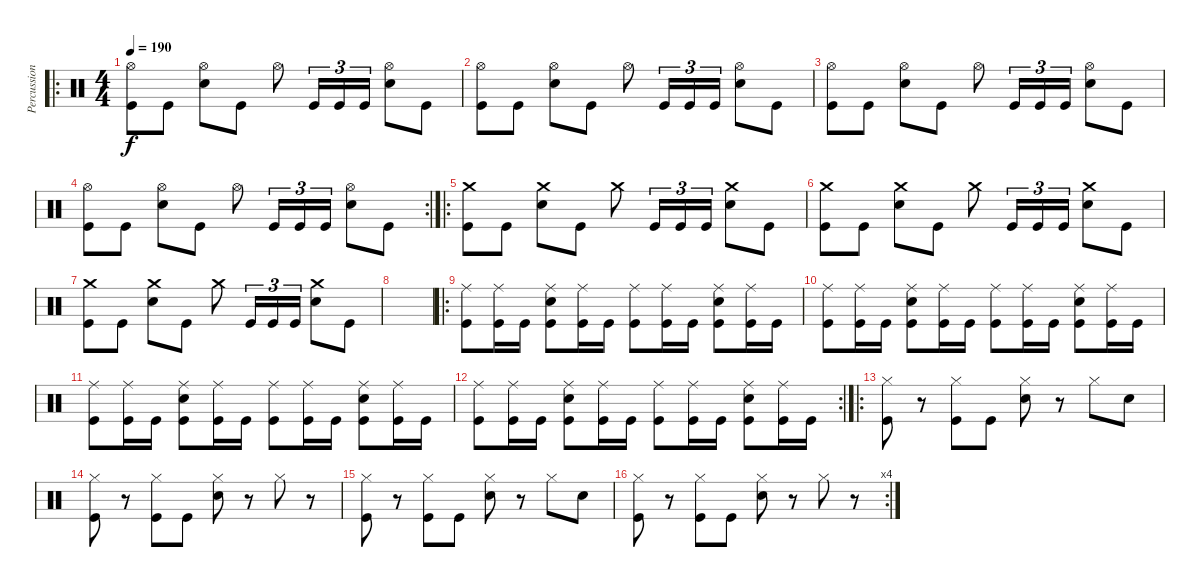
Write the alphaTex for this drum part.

\track ("Percussion" "Percussion") {instrument percussion}
\staff {score}
\articulation defaults
\ro
\ts (4 4)
\tempo 190
\clef neutral
\ks c
("Hi-Hat (open)" "Kick (hit)").8{dy f} "Kick (hit)".8 ("Hi-Hat (open)" "Snare (hit) 2").8 "Kick (hit)".8 "Hi-Hat (open)".8 "Kick (hit)".16{tu (3 2)} "Kick (hit)".16{tu (3 2)} "Kick (hit)".16{tu (3 2)} ("Hi-Hat (open)" "Snare (hit) 2").8 "Kick (hit)".8 |
("Hi-Hat (open)" "Kick (hit)").8 "Kick (hit)".8 ("Hi-Hat (open)" "Snare (hit) 2").8 "Kick (hit)".8 "Hi-Hat (open)".8 "Kick (hit)".16{tu (3 2)} "Kick (hit)".16{tu (3 2)} "Kick (hit)".16{tu (3 2)} ("Hi-Hat (open)" "Snare (hit) 2").8 "Kick (hit)".8 |
("Hi-Hat (open)" "Kick (hit)").8 "Kick (hit)".8 ("Hi-Hat (open)" "Snare (hit) 2").8 "Kick (hit)".8 "Hi-Hat (open)".8 "Kick (hit)".16{tu (3 2)} "Kick (hit)".16{tu (3 2)} "Kick (hit)".16{tu (3 2)} ("Hi-Hat (open)" "Snare (hit) 2").8 "Kick (hit)".8 |
\rc 2
("Hi-Hat (open)" "Kick (hit)").8 "Kick (hit)".8 ("Hi-Hat (open)" "Snare (hit) 2").8 "Kick (hit)".8 "Hi-Hat (open)".8 "Kick (hit)".16{tu (3 2)} "Kick (hit)".16{tu (3 2)} "Kick (hit)".16{tu (3 2)} ("Hi-Hat (open)" "Snare (hit) 2").8 "Kick (hit)".8 |
\ro
("Crash medium (hit)" "Kick (hit)").8 "Kick (hit)".8 ("Crash medium (hit)" "Snare (hit) 2").8 "Kick (hit)".8 "Crash medium (hit)".8 "Kick (hit)".16{tu (3 2)} "Kick (hit)".16{tu (3 2)} "Kick (hit)".16{tu (3 2)} ("Crash medium (hit)" "Snare (hit) 2").8 "Kick (hit)".8 |
("Crash medium (hit)" "Kick (hit)").8 "Kick (hit)".8 ("Crash medium (hit)" "Snare (hit) 2").8 "Kick (hit)".8 "Crash medium (hit)".8 "Kick (hit)".16{tu (3 2)} "Kick (hit)".16{tu (3 2)} "Kick (hit)".16{tu (3 2)} ("Crash medium (hit)" "Snare (hit) 2").8 "Kick (hit)".8 |
("Crash medium (hit)" "Kick (hit)").8 "Kick (hit)".8 ("Crash medium (hit)" "Snare (hit) 2").8 "Kick (hit)".8 "Crash medium (hit)".8 "Kick (hit)".16{tu (3 2)} "Kick (hit)".16{tu (3 2)} "Kick (hit)".16{tu (3 2)} ("Crash medium (hit)" "Snare (hit) 2").8 "Kick (hit)".8 |
|
\ro
("Ride (middle)" "Kick (hit)").8 ("Ride (middle)" "Kick (hit)").16 "Kick (hit)".16 ("Ride (middle)" "Snare (hit) 2" "Kick (hit)").8 ("Ride (middle)" "Kick (hit)").16 "Kick (hit)".16 ("Ride (middle)" "Kick (hit)").8 ("Ride (middle)" "Kick (hit)").16 "Kick (hit)".16 ("Ride (middle)" "Snare (hit) 2" "Kick (hit)").8 ("Ride (middle)" "Kick (hit)").16 "Kick (hit)".16 |
("Ride (middle)" "Kick (hit)").8 ("Ride (middle)" "Kick (hit)").16 "Kick (hit)".16 ("Ride (middle)" "Snare (hit) 2" "Kick (hit)").8 ("Ride (middle)" "Kick (hit)").16 "Kick (hit)".16 ("Ride (middle)" "Kick (hit)").8 ("Ride (middle)" "Kick (hit)").16 "Kick (hit)".16 ("Ride (middle)" "Snare (hit) 2" "Kick (hit)").8 ("Ride (middle)" "Kick (hit)").16 "Kick (hit)".16 |
("Ride (middle)" "Kick (hit)").8 ("Ride (middle)" "Kick (hit)").16 "Kick (hit)".16 ("Ride (middle)" "Snare (hit) 2" "Kick (hit)").8 ("Ride (middle)" "Kick (hit)").16 "Kick (hit)".16 ("Ride (middle)" "Kick (hit)").8 ("Ride (middle)" "Kick (hit)").16 "Kick (hit)".16 ("Ride (middle)" "Snare (hit) 2" "Kick (hit)").8 ("Ride (middle)" "Kick (hit)").16 "Kick (hit)".16 |
\rc 2
("Ride (middle)" "Kick (hit)").8 ("Ride (middle)" "Kick (hit)").16 "Kick (hit)".16 ("Ride (middle)" "Snare (hit) 2" "Kick (hit)").8 ("Ride (middle)" "Kick (hit)").16 "Kick (hit)".16 ("Ride (middle)" "Kick (hit)").8 ("Ride (middle)" "Kick (hit)").16 "Kick (hit)".16 ("Ride (middle)" "Snare (hit) 2" "Kick (hit)").8 ("Ride (middle)" "Kick (hit)").16 "Kick (hit)".16 |
\ro
("Hi-Hat (closed)" "Kick (hit)").8 r.8 ("Hi-Hat (closed)" "Kick (hit)").8 "Kick (hit)".8 ("Hi-Hat (closed)" "Snare (hit) 2").8 r.8 "Hi-Hat (closed)".8 "Snare (hit) 2".8 |
("Hi-Hat (closed)" "Kick (hit)").8 r.8 ("Hi-Hat (closed)" "Kick (hit)").8 "Kick (hit)".8 ("Hi-Hat (closed)" "Snare (hit) 2").8 r.8 "Hi-Hat (closed)".8 r.8 |
("Hi-Hat (closed)" "Kick (hit)").8 r.8 ("Hi-Hat (closed)" "Kick (hit)").8 "Kick (hit)".8 ("Hi-Hat (closed)" "Snare (hit) 2").8 r.8 "Hi-Hat (closed)".8 "Snare (hit) 2".8 |
\rc 4
("Hi-Hat (closed)" "Kick (hit)").8 r.8 ("Hi-Hat (closed)" "Kick (hit)").8 "Kick (hit)".8 ("Hi-Hat (closed)" "Snare (hit) 2").8 r.8 "Hi-Hat (closed)".8 r.8
